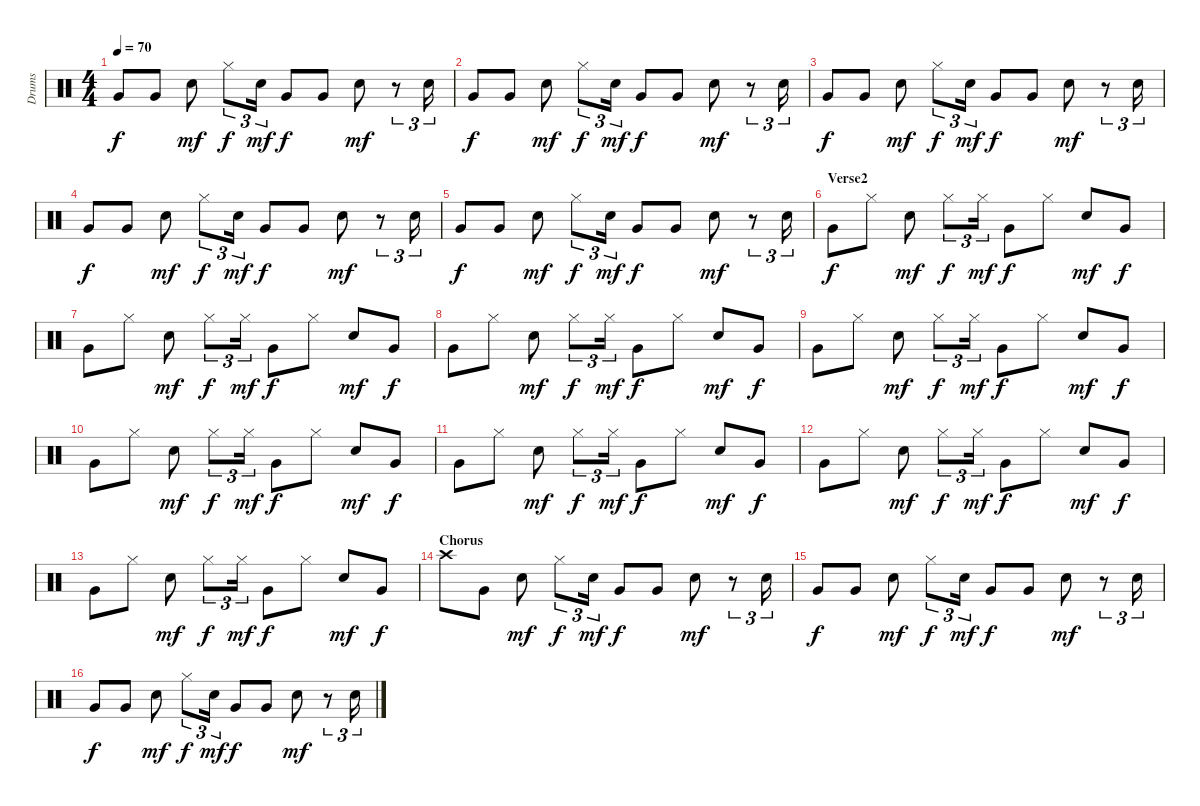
\track ("Drums" "Drums") {instrument percussion}
\staff {score}
\articulation defaults
\ts (4 4)
\tempo 70
\clef neutral
\ks c "Very Low Tom (hit)".8{dy f} "Very Low Tom (hit)".8 "Electric Snare (hit)".8{dy mf} "Hi-Hat (closed)".8{tu (3 2) dy f} "Electric Snare (hit)".16{tu (3 2) dy mf} "Very Low Tom (hit)".8{dy f} "Very Low Tom (hit)".8 "Electric Snare (hit)".8{dy mf}
r.8{tu (3 2)} "Electric Snare (hit)".16{tu (3 2)} |
"Very Low Tom (hit)".8{dy f} "Very Low Tom (hit)".8 "Electric Snare (hit)".8{dy mf} "Hi-Hat (closed)".8{tu (3 2) dy f} "Electric Snare (hit)".16{tu (3 2) dy mf} "Very Low Tom (hit)".8{dy f} "Very Low Tom (hit)".8 "Electric Snare (hit)".8{dy mf} r.8{tu (3 2)} "Electric Snare (hit)".16{tu (3 2)} |
"Very Low Tom (hit)".8{dy f} "Very Low Tom (hit)".8 "Electric Snare (hit)".8{dy mf} "Hi-Hat (closed)".8{tu (3 2) dy f} "Electric Snare (hit)".16{tu (3 2) dy mf} "Very Low Tom (hit)".8{dy f} "Very Low Tom (hit)".8 "Electric Snare (hit)".8{dy mf} r.8{tu (3 2)} "Electric Snare (hit)".16{tu (3 2)} |
"Very Low Tom (hit)".8{dy f} "Very Low Tom (hit)".8 "Electric Snare (hit)".8{dy mf} "Hi-Hat (closed)".8{tu (3 2) dy f} "Electric Snare (hit)".16{tu (3 2) dy mf} "Very Low Tom (hit)".8{dy f} "Very Low Tom (hit)".8 "Electric Snare (hit)".8{dy mf} r.8{tu (3 2)} "Electric Snare (hit)".16{tu (3 2)} |
"Very Low Tom (hit)".8{dy f} "Very Low Tom (hit)".8 "Electric Snare (hit)".8{dy mf} "Hi-Hat (closed)".8{tu (3 2) dy f} "Electric Snare (hit)".16{tu (3 2) dy mf} "Very Low Tom (hit)".8{dy f} "Very Low Tom (hit)".8 "Electric Snare (hit)".8{dy mf} r.8{tu (3 2)} "Electric Snare (hit)".16{tu (3 2)} |
\section ("" "Verse2")
"Very Low Tom (hit)".8{dy f volume 9} "Hi-Hat (closed)".8 "Electric Snare (hit)".8{dy mf} "Hi-Hat (closed)".8{tu (3 2) dy f} "Hi-Hat (closed)".16{tu (3 2) dy mf} "Very Low Tom (hit)".8{dy f} "Hi-Hat (closed)".8 "Electric Snare (hit)".8{dy mf} "Very Low Tom (hit)".8{dy f} |
"Very Low Tom (hit)".8 "Hi-Hat (closed)".8 "Electric Snare (hit)".8{dy mf} "Hi-Hat (closed)".8{tu (3 2) dy f} "Hi-Hat (closed)".16{tu (3 2) dy mf} "Very Low Tom (hit)".8{dy f} "Hi-Hat (closed)".8 "Electric Snare (hit)".8{dy mf} "Very Low Tom (hit)".8{dy f} |
"Very Low Tom (hit)".8 "Hi-Hat (closed)".8 "Electric Snare (hit)".8{dy mf} "Hi-Hat (closed)".8{tu (3 2) dy f} "Hi-Hat (closed)".16{tu (3 2) dy mf} "Very Low Tom (hit)".8{dy f} "Hi-Hat (closed)".8 "Electric Snare (hit)".8{dy mf} "Very Low Tom (hit)".8{dy f} |
"Very Low Tom (hit)".8 "Hi-Hat (closed)".8 "Electric Snare (hit)".8{dy mf} "Hi-Hat (closed)".8{tu (3 2) dy f} "Hi-Hat (closed)".16{tu (3 2) dy mf} "Very Low Tom (hit)".8{dy f} "Hi-Hat (closed)".8 "Electric Snare (hit)".8{dy mf} "Very Low Tom (hit)".8{dy f} |
"Very Low Tom (hit)".8 "Hi-Hat (closed)".8 "Electric Snare (hit)".8{dy mf} "Hi-Hat (closed)".8{tu (3 2) dy f} "Hi-Hat (closed)".16{tu (3 2) dy mf} "Very Low Tom (hit)".8{dy f} "Hi-Hat (closed)".8 "Electric Snare (hit)".8{dy mf} "Very Low Tom (hit)".8{dy f} |
"Very Low Tom (hit)".8 "Hi-Hat (closed)".8 "Electric Snare (hit)".8{dy mf} "Hi-Hat (closed)".8{tu (3 2) dy f} "Hi-Hat (closed)".16{tu (3 2) dy mf} "Very Low Tom (hit)".8{dy f} "Hi-Hat (closed)".8 "Electric Snare (hit)".8{dy mf} "Very Low Tom (hit)".8{dy f} |
"Very Low Tom (hit)".8 "Hi-Hat (closed)".8 "Electric Snare (hit)".8{dy mf} "Hi-Hat (closed)".8{tu (3 2) dy f} "Hi-Hat (closed)".16{tu (3 2) dy mf} "Very Low Tom (hit)".8{dy f} "Hi-Hat (closed)".8 "Electric Snare (hit)".8{dy mf} "Very Low Tom (hit)".8{dy f} |
"Very Low Tom (hit)".8 "Hi-Hat (closed)".8 "Electric Snare (hit)".8{dy mf} "Hi-Hat (closed)".8{tu (3 2) dy f} "Hi-Hat (closed)".16{tu (3 2) dy mf} "Very Low Tom (hit)".8{dy f} "Hi-Hat (closed)".8 "Electric Snare (hit)".8{dy mf} "Very Low Tom (hit)".8{dy f} |
\section ("" "Chorus")
"Crash high (hit)".8{volume 11} "Very Low Tom (hit)".8 "Electric Snare (hit)".8{dy mf} "Hi-Hat (closed)".8{tu (3 2) dy f} "Electric Snare (hit)".16{tu (3 2) dy mf} "Very Low Tom (hit)".8{dy f} "Very Low Tom (hit)".8 "Electric Snare (hit)".8{dy mf} r.8{tu (3 2)} "Electric Snare (hit)".16{tu (3 2)} |
"Very Low Tom (hit)".8{dy f} "Very Low Tom (hit)".8 "Electric Snare (hit)".8{dy mf} "Hi-Hat (closed)".8{tu (3 2) dy f} "Electric Snare (hit)".16{tu (3 2) dy mf} "Very Low Tom (hit)".8{dy f} "Very Low Tom (hit)".8 "Electric Snare (hit)".8{dy mf} r.8{tu (3 2)} "Electric Snare (hit)".16{tu (3 2)} |
"Very Low Tom (hit)".8{dy f} "Very Low Tom (hit)".8 "Electric Snare (hit)".8{dy mf} "Hi-Hat (closed)".8{tu (3 2) dy f} "Electric Snare (hit)".16{tu (3 2) dy mf} "Very Low Tom (hit)".8{dy f} "Very Low Tom (hit)".8 "Electric Snare (hit)".8{dy mf} r.8{tu (3 2)} "Electric Snare (hit)".16{tu (3 2)}
